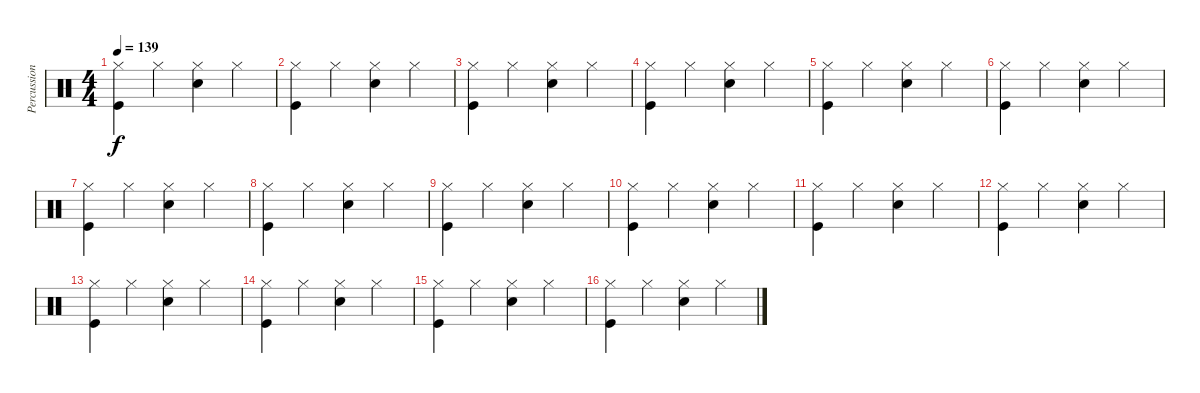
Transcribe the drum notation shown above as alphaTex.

\track ("Percussions" "Percussion") {instrument percussion}
\staff {score}
\articulation defaults
\ts (4 4)
\tempo 139
\clef neutral
\ks c
("Hi-Hat (closed)" "Kick (hit)").4{dy f} "Hi-Hat (closed)".4 ("Hi-Hat (closed)" "Snare (hit) 2").4 "Hi-Hat (closed)".4 |
("Hi-Hat (closed)" "Kick (hit)").4 "Hi-Hat (closed)".4 ("Hi-Hat (closed)" "Snare (hit) 2").4 "Hi-Hat (closed)".4 |
("Hi-Hat (closed)" "Kick (hit)").4 "Hi-Hat (closed)".4 ("Hi-Hat (closed)" "Snare (hit) 2").4 "Hi-Hat (closed)".4 |
("Hi-Hat (closed)" "Kick (hit)").4 "Hi-Hat (closed)".4 ("Hi-Hat (closed)" "Snare (hit) 2").4 "Hi-Hat (closed)".4 |
("Hi-Hat (closed)" "Kick (hit)").4 "Hi-Hat (closed)".4 ("Hi-Hat (closed)" "Snare (hit) 2").4 "Hi-Hat (closed)".4 |
("Hi-Hat (closed)" "Kick (hit)").4 "Hi-Hat (closed)".4 ("Hi-Hat (closed)" "Snare (hit) 2").4 "Hi-Hat (closed)".4 |
("Hi-Hat (closed)" "Kick (hit)").4 "Hi-Hat (closed)".4 ("Hi-Hat (closed)" "Snare (hit) 2").4 "Hi-Hat (closed)".4 |
("Hi-Hat (closed)" "Kick (hit)").4 "Hi-Hat (closed)".4 ("Hi-Hat (closed)" "Snare (hit) 2").4 "Hi-Hat (closed)".4 |
("Hi-Hat (closed)" "Kick (hit)").4 "Hi-Hat (closed)".4 ("Hi-Hat (closed)" "Snare (hit) 2").4 "Hi-Hat (closed)".4 |
("Hi-Hat (closed)" "Kick (hit)").4 "Hi-Hat (closed)".4 ("Hi-Hat (closed)" "Snare (hit) 2").4 "Hi-Hat (closed)".4 |
("Hi-Hat (closed)" "Kick (hit)").4 "Hi-Hat (closed)".4 ("Hi-Hat (closed)" "Snare (hit) 2").4 "Hi-Hat (closed)".4 |
("Hi-Hat (closed)" "Kick (hit)").4 "Hi-Hat (closed)".4 ("Hi-Hat (closed)" "Snare (hit) 2").4 "Hi-Hat (closed)".4 |
("Hi-Hat (closed)" "Kick (hit)").4 "Hi-Hat (closed)".4 ("Hi-Hat (closed)" "Snare (hit) 2").4 "Hi-Hat (closed)".4 |
("Hi-Hat (closed)" "Kick (hit)").4 "Hi-Hat (closed)".4 ("Hi-Hat (closed)" "Snare (hit) 2").4 "Hi-Hat (closed)".4 |
("Hi-Hat (closed)" "Kick (hit)").4 "Hi-Hat (closed)".4 ("Hi-Hat (closed)" "Snare (hit) 2").4 "Hi-Hat (closed)".4 |
("Hi-Hat (closed)" "Kick (hit)").4 "Hi-Hat (closed)".4 ("Hi-Hat (closed)" "Snare (hit) 2").4 "Hi-Hat (closed)".4
